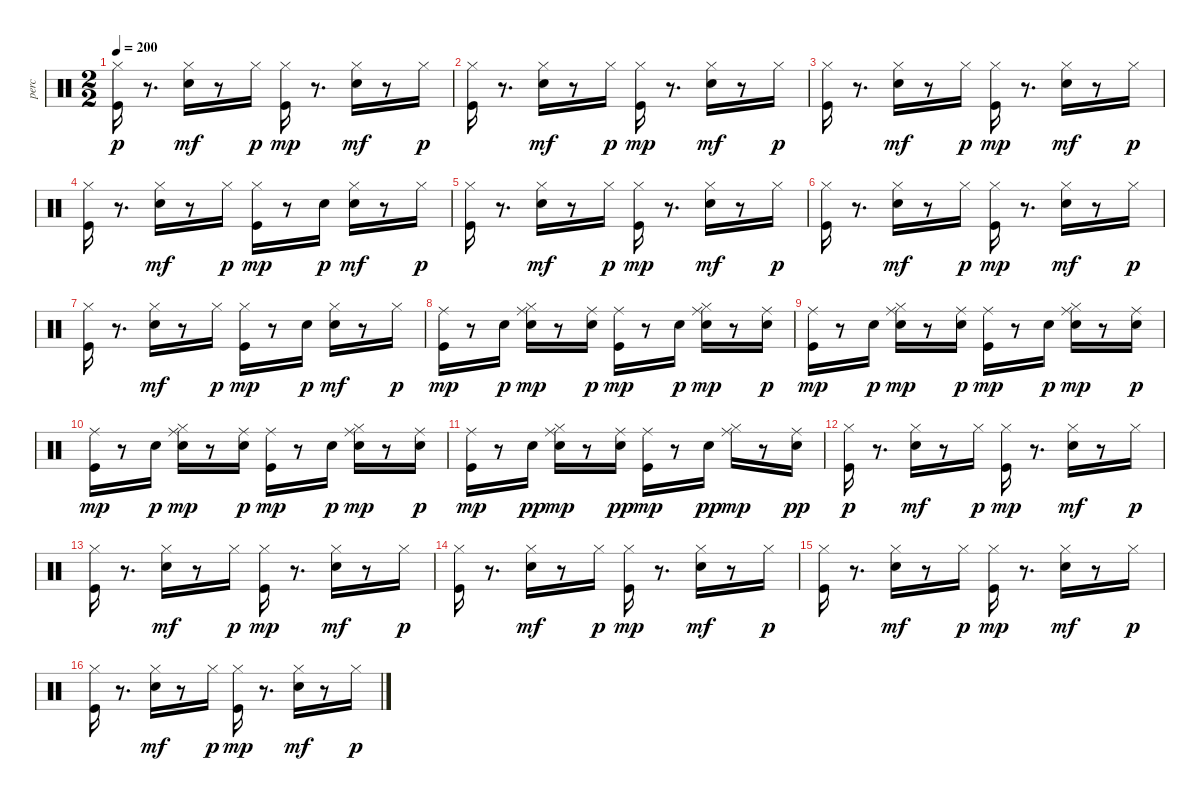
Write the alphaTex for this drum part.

\track ("perc" "perc") {instrument percussion}
\staff {score}
\articulation defaults
\ts (2 2)
\tempo 200
\clef neutral
\ks c
("Kick (hit)" "Hi-Hat (closed)").16{dy p} r.8{d} ("Snare (hit) 2" "Hi-Hat (closed)").16{dy mf} r.8 "Hi-Hat (closed)".16{dy p} ("Kick (hit)" "Hi-Hat (closed)").16{dy mp} r.8{d} ("Snare (hit) 2" "Hi-Hat (closed)").16{dy mf} r.8 "Hi-Hat (closed)".16{dy p} |
("Kick (hit)" "Hi-Hat (closed)").16 r.8{d} ("Snare (hit) 2" "Hi-Hat (closed)").16{dy mf} r.8 "Hi-Hat (closed)".16{dy p} ("Kick (hit)" "Hi-Hat (closed)").16{dy mp} r.8{d} ("Snare (hit) 2" "Hi-Hat (closed)").16{dy mf} r.8 "Hi-Hat (closed)".16{dy p} |
("Kick (hit)" "Hi-Hat (closed)").16 r.8{d} ("Snare (hit) 2" "Hi-Hat (closed)").16{dy mf} r.8 "Hi-Hat (closed)".16{dy p} ("Kick (hit)" "Hi-Hat (closed)").16{dy mp} r.8{d} ("Snare (hit) 2" "Hi-Hat (closed)").16{dy mf} r.8 "Hi-Hat (closed)".16{dy p} |
("Kick (hit)" "Hi-Hat (closed)").16 r.8{d} ("Snare (hit) 2" "Hi-Hat (closed)").16{dy mf} r.8 "Hi-Hat (closed)".16{dy p} ("Kick (hit)" "Hi-Hat (closed)").16{dy mp} r.8 "Snare (hit) 2".16{dy p} ("Snare (hit) 2" "Hi-Hat (closed)").16{dy mf} r.8 "Hi-Hat (closed)".16{dy p} |
("Kick (hit)" "Hi-Hat (closed)").16 r.8{d} ("Snare (hit) 2" "Hi-Hat (closed)").16{dy mf} r.8 "Hi-Hat (closed)".16{dy p} ("Kick (hit)" "Hi-Hat (closed)").16{dy mp} r.8{d} ("Snare (hit) 2" "Hi-Hat (closed)").16{dy mf} r.8 "Hi-Hat (closed)".16{dy p} |
("Kick (hit)" "Hi-Hat (closed)").16 r.8{d} ("Snare (hit) 2" "Hi-Hat (closed)").16{dy mf} r.8 "Hi-Hat (closed)".16{dy p} ("Kick (hit)" "Hi-Hat (closed)").16{dy mp} r.8{d} ("Snare (hit) 2" "Hi-Hat (closed)").16{dy mf} r.8 "Hi-Hat (closed)".16{dy p} |
("Kick (hit)" "Hi-Hat (closed)").16 r.8{d} ("Snare (hit) 2" "Hi-Hat (closed)").16{dy mf} r.8 "Hi-Hat (closed)".16{dy p} ("Kick (hit)" "Hi-Hat (closed)").16{dy mp} r.8 "Snare (hit) 2".16{dy p} ("Snare (hit) 2" "Hi-Hat (closed)").16{dy mf} r.8 "Hi-Hat (closed)".16{dy p} |
("Kick (hit)" "Ride (middle)").16{dy mp} r.8 "Snare (hit) 2".16{dy p} ("Snare (hit) 2" "Hi-Hat (closed)" "Ride (middle)").16{dy mp} r.8 ("Snare (hit) 2" "Ride (middle)").16{dy p} ("Kick (hit)" "Ride (middle)").16{dy mp} r.8 "Snare (hit) 2".16{dy p} ("Snare (hit) 2" "Hi-Hat (closed)" "Ride (middle)").16{dy mp} r.8 ("Snare (hit) 2" "Ride (middle)").16{dy p} |
("Kick (hit)" "Ride (middle)").16{dy mp} r.8 "Snare (hit) 2".16{dy p} ("Snare (hit) 2" "Hi-Hat (closed)" "Ride (middle)").16{dy mp} r.8 ("Snare (hit) 2" "Ride (middle)").16{dy p} ("Kick (hit)" "Ride (middle)").16{dy mp} r.8 "Snare (hit) 2".16{dy p} ("Snare (hit) 2" "Hi-Hat (closed)" "Ride (middle)").16{dy mp} r.8 ("Snare (hit) 2" "Ride (middle)").16{dy p} |
("Kick (hit)" "Ride (middle)").16{dy mp} r.8 "Snare (hit) 2".16{dy p} ("Snare (hit) 2" "Hi-Hat (closed)" "Ride (middle)").16{dy mp} r.8 ("Snare (hit) 2" "Ride (middle)").16{dy p} ("Kick (hit)" "Ride (middle)").16{dy mp} r.8 "Snare (hit) 2".16{dy p} ("Snare (hit) 2" "Hi-Hat (closed)" "Ride (middle)").16{dy mp} r.8 ("Snare (hit) 2" "Ride (middle)").16{dy p} |
("Kick (hit)" "Ride (middle)").16{dy mp} r.8 "Snare (hit) 2".16{dy pp} ("Snare (hit) 2" "Hi-Hat (closed)" "Ride (middle)").16{dy mp} r.8 ("Snare (hit) 2" "Ride (middle)").16{dy pp} ("Kick (hit)" "Ride (middle)").16{dy mp} r.8 "Snare (hit) 2".16{dy pp} ("Hi-Hat (closed)" "Ride (middle)").16{dy mp} r.8 ("Snare (hit) 2" "Ride (middle)").16{dy pp} |
("Kick (hit)" "Hi-Hat (closed)").16{dy p} r.8{d} ("Snare (hit) 2" "Hi-Hat (closed)").16{dy mf} r.8 "Hi-Hat (closed)".16{dy p} ("Kick (hit)" "Hi-Hat (closed)").16{dy mp} r.8{d} ("Snare (hit) 2" "Hi-Hat (closed)").16{dy mf} r.8 "Hi-Hat (closed)".16{dy p} |
("Kick (hit)" "Hi-Hat (closed)").16 r.8{d} ("Snare (hit) 2" "Hi-Hat (closed)").16{dy mf} r.8 "Hi-Hat (closed)".16{dy p} ("Kick (hit)" "Hi-Hat (closed)").16{dy mp} r.8{d} ("Snare (hit) 2" "Hi-Hat (closed)").16{dy mf} r.8 "Hi-Hat (closed)".16{dy p} |
("Kick (hit)" "Hi-Hat (closed)").16 r.8{d} ("Snare (hit) 2" "Hi-Hat (closed)").16{dy mf} r.8 "Hi-Hat (closed)".16{dy p} ("Kick (hit)" "Hi-Hat (closed)").16{dy mp} r.8{d} ("Snare (hit) 2" "Hi-Hat (closed)").16{dy mf} r.8 "Hi-Hat (closed)".16{dy p} |
("Kick (hit)" "Hi-Hat (closed)").16 r.8{d} ("Snare (hit) 2" "Hi-Hat (closed)").16{dy mf} r.8 "Hi-Hat (closed)".16{dy p} ("Kick (hit)" "Hi-Hat (closed)").16{dy mp} r.8{d} ("Snare (hit) 2" "Hi-Hat (closed)").16{dy mf} r.8 "Hi-Hat (closed)".16{dy p} |
("Kick (hit)" "Hi-Hat (closed)").16 r.8{d} ("Snare (hit) 2" "Hi-Hat (closed)").16{dy mf} r.8 "Hi-Hat (closed)".16{dy p} ("Kick (hit)" "Hi-Hat (closed)").16{dy mp} r.8{d} ("Snare (hit) 2" "Hi-Hat (closed)").16{dy mf} r.8 "Hi-Hat (closed)".16{dy p}
